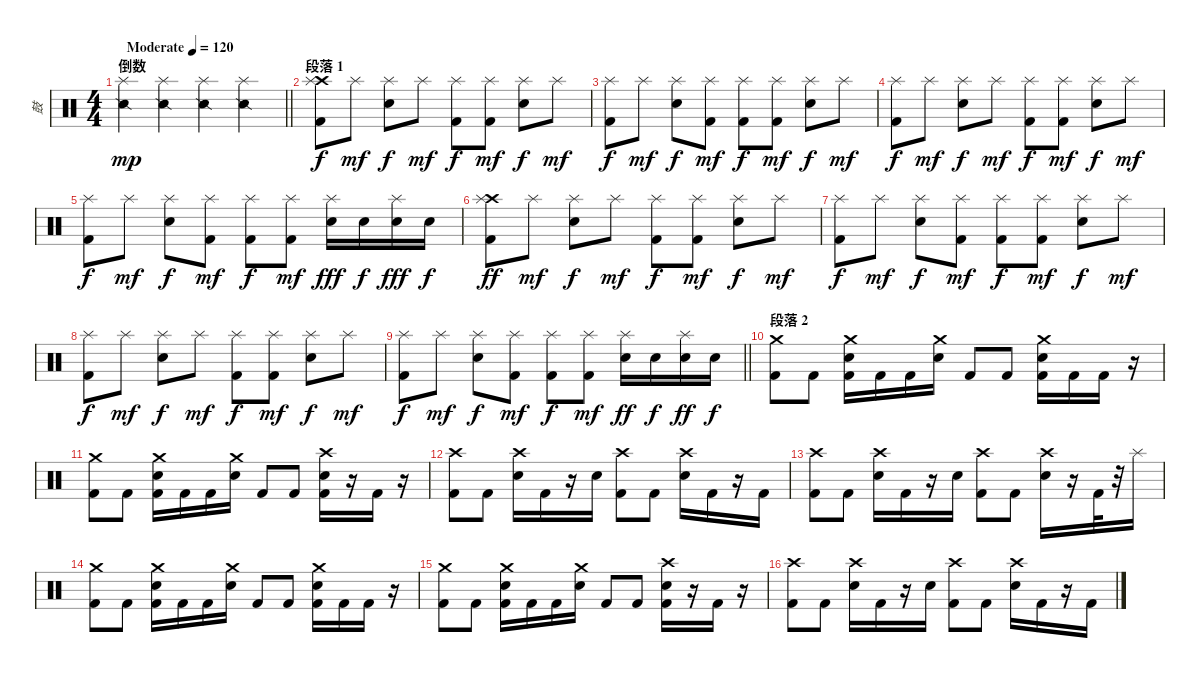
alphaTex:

\track ("鼓" "鼓") {instrument percussion}
\staff {score}
\articulation defaults
\ts (4 4)
\section ("" "倒数")
\tempo (120 "Moderate")
\clef neutral
\barLineRight lightlight
\ks c
("Snare (side stick) 2" "Splash (hit)").4{dy mp} ("Snare (side stick) 2" "Splash (hit)").4 ("Snare (side stick) 2" "Splash (hit)").4 ("Snare (side stick) 2" "Splash (hit)").4 |
\section ("" "段落 1")
("Crash high (hit)" "Kick (hit) 2" "Splash (hit)").8{dy f} "Splash (hit)".8{dy mf} ("Electric Snare (hit)" "Splash (hit)").8{dy f} "Splash (hit)".8{dy mf} ("Kick (hit) 2" "Splash (hit)").8{dy f} ("Kick (hit) 2" "Splash (hit)").8{dy mf} ("Electric Snare (hit)" "Splash (hit)").8{dy f} "Splash (hit)".8{dy mf} |
("Kick (hit) 2" "Splash (hit)").8{dy f} "Splash (hit)".8{dy mf} ("Electric Snare (hit)" "Splash (hit)").8{dy f} ("Kick (hit) 2" "Splash (hit)").8{dy mf} ("Kick (hit) 2" "Splash (hit)").8{dy f} ("Kick (hit) 2" "Splash (hit)").8{dy mf} ("Electric Snare (hit)" "Splash (hit)").8{dy f} "Splash (hit)".8{dy mf} |
("Kick (hit) 2" "Splash (hit)").8{dy f} "Splash (hit)".8{dy mf} ("Electric Snare (hit)" "Splash (hit)").8{dy f} "Splash (hit)".8{dy mf} ("Kick (hit) 2" "Splash (hit)").8{dy f} ("Kick (hit) 2" "Splash (hit)").8{dy mf} ("Electric Snare (hit)" "Splash (hit)").8{dy f} "Splash (hit)".8{dy mf} |
("Kick (hit) 2" "Splash (hit)").8{dy f} "Splash (hit)".8{dy mf} ("Electric Snare (hit)" "Splash (hit)").8{dy f} ("Kick (hit) 2" "Splash (hit)").8{dy mf} ("Kick (hit) 2" "Splash (hit)").8{dy f} ("Kick (hit) 2" "Splash (hit)").8{dy mf} ("Electric Snare (hit)" "Splash (hit)").16{dy fff} "Electric Snare (hit)".16{dy f} ("Electric Snare (hit)" "Splash (hit)").16{dy fff} "Electric Snare (hit)".16{dy f} |
("Crash high (hit)" "Kick (hit) 2" "Splash (hit)").8{dy ff} "Splash (hit)".8{dy mf} ("Electric Snare (hit)" "Splash (hit)").8{dy f} "Splash (hit)".8{dy mf} ("Kick (hit) 2" "Splash (hit)").8{dy f} ("Kick (hit) 2" "Splash (hit)").8{dy mf} ("Electric Snare (hit)" "Splash (hit)").8{dy f} "Splash (hit)".8{dy mf} |
("Kick (hit) 2" "Splash (hit)").8{dy f} "Splash (hit)".8{dy mf} ("Electric Snare (hit)" "Splash (hit)").8{dy f} ("Kick (hit) 2" "Splash (hit)").8{dy mf} ("Kick (hit) 2" "Splash (hit)").8{dy f} ("Kick (hit) 2" "Splash (hit)").8{dy mf} ("Electric Snare (hit)" "Splash (hit)").8{dy f} "Splash (hit)".8{dy mf} |
("Kick (hit) 2" "Splash (hit)").8{dy f} "Splash (hit)".8{dy mf} ("Electric Snare (hit)" "Splash (hit)").8{dy f} "Splash (hit)".8{dy mf} ("Kick (hit) 2" "Splash (hit)").8{dy f} ("Kick (hit) 2" "Splash (hit)").8{dy mf} ("Electric Snare (hit)" "Splash (hit)").8{dy f} "Splash (hit)".8{dy mf} |
\barLineRight lightlight
("Kick (hit) 2" "Splash (hit)").8{dy f} "Splash (hit)".8{dy mf} ("Electric Snare (hit)" "Splash (hit)").8{dy f} ("Kick (hit) 2" "Splash (hit)").8{dy mf} ("Kick (hit) 2" "Splash (hit)").8{dy f} ("Kick (hit) 2" "Splash (hit)").8{dy mf} ("Electric Snare (hit)" "Splash (hit)").16{dy ff} "Electric Snare (hit)".16{dy f} ("Electric Snare (hit)" "Splash (hit)").16{dy ff} "Electric Snare (hit)".16{dy f} |
\section ("" "段落 2")
("Crash medium (hit)" "Kick (hit) 2").8 "Kick (hit) 2".8 ("Crash medium (hit)" "Electric Snare (hit)" "Kick (hit) 2").16 "Kick (hit) 2".16 "Kick (hit) 2".16 ("Crash medium (hit)" "Electric Snare (hit)").16 "Kick (hit) 2".8 "Kick (hit) 2".8 ("Crash medium (hit)" "Electric Snare (hit)" "Kick (hit) 2").16 "Kick (hit) 2".16 "Kick (hit) 2".16 r.16 |
("Crash medium (hit)" "Kick (hit) 2").8 "Kick (hit) 2".8 ("Crash medium (hit)" "Electric Snare (hit)" "Kick (hit) 2").16 "Kick (hit) 2".16 "Kick (hit) 2".16 ("Crash medium (hit)" "Electric Snare (hit)").16 "Kick (hit) 2".8 "Kick (hit) 2".8 ("Crash high (hit)" "Electric Snare (hit)" "Kick (hit) 2").16 r.16 "Kick (hit) 2".16 r.16 |
("Crash high (hit)" "Kick (hit) 2").8 "Kick (hit) 2".8 ("Crash high (hit)" "Electric Snare (hit)").16 "Kick (hit) 2".16 r.16 "Electric Snare (hit)".16 ("Crash high (hit)" "Kick (hit) 2").8 "Kick (hit) 2".8 ("Crash high (hit)" "Electric Snare (hit)").16 "Kick (hit) 2".16 r.16 "Kick (hit) 2".16 |
("Crash high (hit)" "Kick (hit) 2").8 "Kick (hit) 2".8 ("Crash high (hit)" "Electric Snare (hit)").16 "Kick (hit) 2".16 r.16 "Electric Snare (hit)".16 ("Crash high (hit)" "Kick (hit) 2").8 "Kick (hit) 2".8 ("Crash high (hit)" "Electric Snare (hit)").16 r.16 "Kick (hit) 2".32 r.32 "Splash (hit)".16 |
("Crash medium (hit)" "Kick (hit) 2").8 "Kick (hit) 2".8 ("Crash medium (hit)" "Electric Snare (hit)" "Kick (hit) 2").16 "Kick (hit) 2".16 "Kick (hit) 2".16 ("Crash medium (hit)" "Electric Snare (hit)").16 "Kick (hit) 2".8 "Kick (hit) 2".8 ("Crash medium (hit)" "Electric Snare (hit)" "Kick (hit) 2").16 "Kick (hit) 2".16 "Kick (hit) 2".16 r.16 |
("Crash medium (hit)" "Kick (hit) 2").8 "Kick (hit) 2".8 ("Crash medium (hit)" "Electric Snare (hit)" "Kick (hit) 2").16 "Kick (hit) 2".16 "Kick (hit) 2".16 ("Crash medium (hit)" "Electric Snare (hit)").16 "Kick (hit) 2".8 "Kick (hit) 2".8 ("Crash high (hit)" "Electric Snare (hit)" "Kick (hit) 2").16 r.16 "Kick (hit) 2".16 r.16 |
("Crash high (hit)" "Kick (hit) 2").8 "Kick (hit) 2".8 ("Crash high (hit)" "Electric Snare (hit)").16 "Kick (hit) 2".16 r.16 "Electric Snare (hit)".16 ("Crash high (hit)" "Kick (hit) 2").8 "Kick (hit) 2".8 ("Crash high (hit)" "Electric Snare (hit)").16 "Kick (hit) 2".16 r.16 "Kick (hit) 2".16
